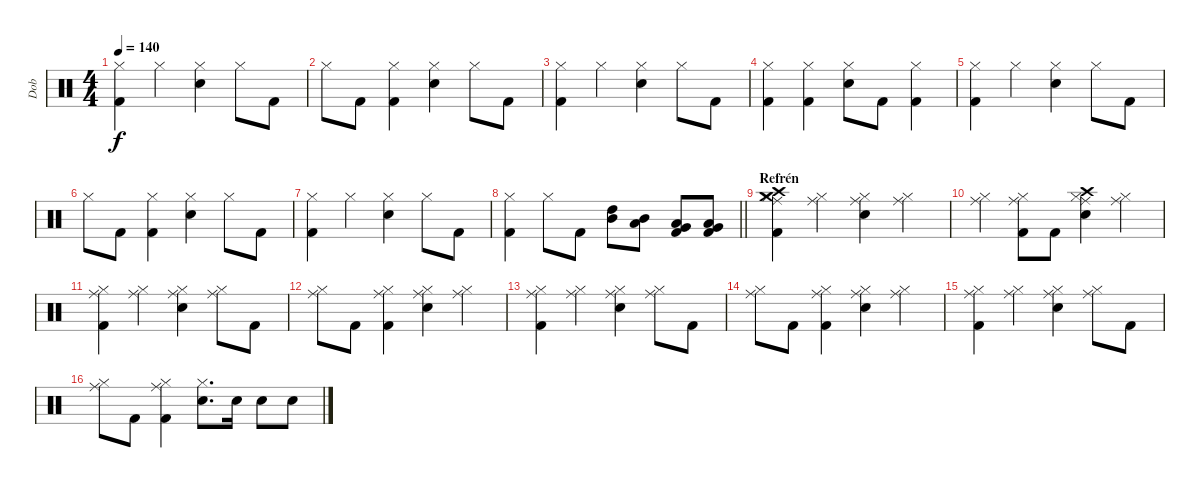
\track ("Dob" "Dob") {instrument percussion}
\staff {score}
\articulation defaults
\ts (4 4)
\tempo 140
\clef neutral
\ks c
("Hi-Hat (closed)" "Kick (hit) 2").4{dy f} "Hi-Hat (closed)".4 ("Hi-Hat (closed)" "Electric Snare (hit)").4 "Hi-Hat (closed)".8 "Kick (hit) 2".8 |
"Hi-Hat (closed)".8 "Kick (hit) 2".8 ("Hi-Hat (closed)" "Kick (hit) 2").4 ("Hi-Hat (closed)" "Electric Snare (hit)").4 "Hi-Hat (closed)".8 "Kick (hit) 2".8 |
("Hi-Hat (closed)" "Kick (hit) 2").4 "Hi-Hat (closed)".4 ("Hi-Hat (closed)" "Electric Snare (hit)").4 "Hi-Hat (closed)".8 "Kick (hit) 2".8 |
("Hi-Hat (closed)" "Kick (hit) 2").4 ("Hi-Hat (closed)" "Kick (hit) 2").4 ("Hi-Hat (closed)" "Electric Snare (hit)").8 "Kick (hit) 2".8 ("Hi-Hat (closed)" "Kick (hit) 2").4 |
("Hi-Hat (closed)" "Kick (hit) 2").4 "Hi-Hat (closed)".4 ("Hi-Hat (closed)" "Electric Snare (hit)").4 "Hi-Hat (closed)".8 "Kick (hit) 2".8 |
"Hi-Hat (closed)".8 "Kick (hit) 2".8 ("Hi-Hat (closed)" "Kick (hit) 2").4 ("Hi-Hat (closed)" "Electric Snare (hit)").4 "Hi-Hat (closed)".8 "Kick (hit) 2".8 |
("Hi-Hat (closed)" "Kick (hit) 2").4 "Hi-Hat (closed)".4 ("Hi-Hat (closed)" "Electric Snare (hit)").4 "Hi-Hat (closed)".8 "Kick (hit) 2".8 |
\barLineRight lightlight
("Hi-Hat (closed)" "Kick (hit) 2").4 "Hi-Hat (closed)".8 "Kick (hit) 2".8 ("Mid Tom (hit)" "High Tom (hit)").8 ("Low Tom (hit)" "Mid Tom (hit)").8 ("Very Low Tom (hit)" "Kick (hit) 2" "Low Tom (hit)").8 ("Low Floor Tom (hit)" "Kick (hit) 2" "Very Low Tom (hit)").8 |
\section ("" "Refrén")
("Hi-Hat (closed)" "Crash high (hit)" "Kick (hit) 2" "Crash medium (hit)" "Ride (middle)").4 ("Hi-Hat (closed)" "Ride (middle)").4 ("Hi-Hat (closed)" "Electric Snare (hit)" "Ride (middle)").4 ("Hi-Hat (closed)" "Ride (middle)").4 |
("Hi-Hat (closed)" "Ride (middle)").4 ("Hi-Hat (closed)" "Kick (hit) 2" "Ride (middle)").8 "Kick (hit) 2".8 ("Hi-Hat (closed)" "Crash high (hit)" "Electric Snare (hit)" "Ride (middle)").4 ("Hi-Hat (closed)" "Ride (middle)").4 |
("Hi-Hat (closed)" "Kick (hit) 2" "Ride (middle)").4 ("Hi-Hat (closed)" "Ride (middle)").4 ("Hi-Hat (closed)" "Electric Snare (hit)" "Ride (middle)").4 ("Hi-Hat (closed)" "Ride (middle)").8 "Kick (hit) 2".8 |
("Hi-Hat (closed)" "Ride (middle)").8 "Kick (hit) 2".8 ("Hi-Hat (closed)" "Kick (hit) 2" "Ride (middle)").4 ("Hi-Hat (closed)" "Electric Snare (hit)" "Ride (middle)").4 ("Hi-Hat (closed)" "Ride (middle)").4 |
("Hi-Hat (closed)" "Kick (hit) 2" "Ride (middle)").4 ("Hi-Hat (closed)" "Ride (middle)").4 ("Hi-Hat (closed)" "Electric Snare (hit)" "Ride (middle)").4 ("Hi-Hat (closed)" "Ride (middle)").8 "Kick (hit) 2".8 |
("Hi-Hat (closed)" "Ride (middle)").8 "Kick (hit) 2".8 ("Hi-Hat (closed)" "Kick (hit) 2" "Ride (middle)").4 ("Hi-Hat (closed)" "Electric Snare (hit)" "Ride (middle)").4 ("Hi-Hat (closed)" "Ride (middle)").4 |
("Hi-Hat (closed)" "Kick (hit) 2" "Ride (middle)").4 ("Hi-Hat (closed)" "Ride (middle)").4 ("Hi-Hat (closed)" "Electric Snare (hit)" "Ride (middle)").4 ("Hi-Hat (closed)" "Ride (middle)").8 "Kick (hit) 2".8 |
("Hi-Hat (closed)" "Ride (middle)").8 "Kick (hit) 2".8 ("Hi-Hat (closed)" "Kick (hit) 2" "Ride (middle)").4 ("Hi-Hat (closed)" "Electric Snare (hit)").8{d} "Electric Snare (hit)".16 "Electric Snare (hit)".8 "Electric Snare (hit)".8
